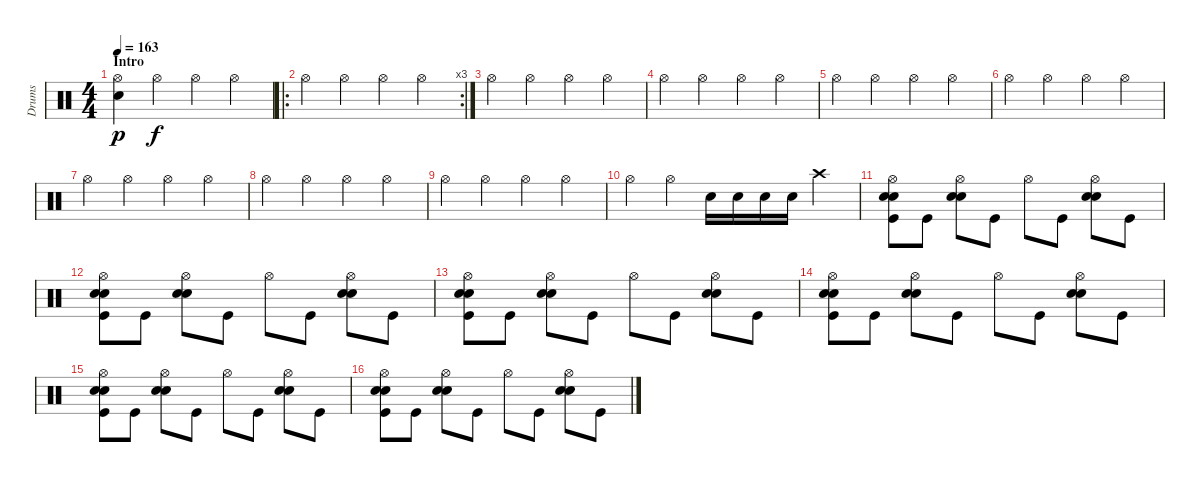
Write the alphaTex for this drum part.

\track ("Drums" "Drums") {instrument percussion}
\staff {score}
\articulation defaults
\ts (4 4)
\section ("" "Intro")
\tempo 163
\clef neutral
\ks c
("Hi-Hat (open)" "Snare (hit) 2").4{dy p} "Hi-Hat (open)".4{dy f} "Hi-Hat (open)".4 "Hi-Hat (open)".4 |
\ro
\rc 3 "Hi-Hat (open)".4 "Hi-Hat (open)".4 "Hi-Hat (open)".4 "Hi-Hat (open)".4
|
"Hi-Hat (open)".4 "Hi-Hat (open)".4 "Hi-Hat (open)".4 "Hi-Hat (open)".4 |
"Hi-Hat (open)".4 "Hi-Hat (open)".4 "Hi-Hat (open)".4 "Hi-Hat (open)".4 |
"Hi-Hat (open)".4 "Hi-Hat (open)".4 "Hi-Hat (open)".4 "Hi-Hat (open)".4 |
"Hi-Hat (open)".4 "Hi-Hat (open)".4 "Hi-Hat (open)".4 "Hi-Hat (open)".4 |
"Hi-Hat (open)".4 "Hi-Hat (open)".4 "Hi-Hat (open)".4 "Hi-Hat (open)".4 |
"Hi-Hat (open)".4 "Hi-Hat (open)".4 "Hi-Hat (open)".4 "Hi-Hat (open)".4 |
"Hi-Hat (open)".4 "Hi-Hat (open)".4 "Hi-Hat (open)".4 "Hi-Hat (open)".4 |
"Hi-Hat (open)".4 "Hi-Hat (open)".4 "Electric Snare (hit)".16 "Electric Snare (hit)".16 "Electric Snare (hit)".16 "Electric Snare (hit)".16 "Crash high (hit)".4 |
("Hi-Hat (open)" "Electric Snare (hit)" "Electric Snare (hit)" "Kick (hit)").8 "Kick (hit)".8 ("Hi-Hat (open)" "Electric Snare (hit)" "Electric Snare (hit)").8 "Kick (hit)".8 "Hi-Hat (open)".8 "Kick (hit)".8 ("Hi-Hat (open)" "Electric Snare (hit)" "Electric Snare (hit)").8 "Kick (hit)".8 |
("Hi-Hat (open)" "Electric Snare (hit)" "Electric Snare (hit)" "Kick (hit)").8 "Kick (hit)".8 ("Hi-Hat (open)" "Electric Snare (hit)" "Electric Snare (hit)").8 "Kick (hit)".8 "Hi-Hat (open)".8 "Kick (hit)".8 ("Hi-Hat (open)" "Electric Snare (hit)" "Electric Snare (hit)").8 "Kick (hit)".8 |
("Hi-Hat (open)" "Electric Snare (hit)" "Electric Snare (hit)" "Kick (hit)").8 "Kick (hit)".8 ("Hi-Hat (open)" "Electric Snare (hit)" "Electric Snare (hit)").8 "Kick (hit)".8 "Hi-Hat (open)".8 "Kick (hit)".8 ("Hi-Hat (open)" "Electric Snare (hit)" "Electric Snare (hit)").8 "Kick (hit)".8 |
("Hi-Hat (open)" "Electric Snare (hit)" "Electric Snare (hit)" "Kick (hit)").8 "Kick (hit)".8 ("Hi-Hat (open)" "Electric Snare (hit)" "Electric Snare (hit)").8 "Kick (hit)".8 "Hi-Hat (open)".8 "Kick (hit)".8 ("Hi-Hat (open)" "Electric Snare (hit)" "Electric Snare (hit)").8 "Kick (hit)".8 |
("Hi-Hat (open)" "Electric Snare (hit)" "Electric Snare (hit)" "Kick (hit)").8 "Kick (hit)".8 ("Hi-Hat (open)" "Electric Snare (hit)" "Electric Snare (hit)").8 "Kick (hit)".8 "Hi-Hat (open)".8 "Kick (hit)".8 ("Hi-Hat (open)" "Electric Snare (hit)" "Electric Snare (hit)").8 "Kick (hit)".8 |
("Hi-Hat (open)" "Electric Snare (hit)" "Electric Snare (hit)" "Kick (hit)").8 "Kick (hit)".8 ("Hi-Hat (open)" "Electric Snare (hit)" "Electric Snare (hit)").8 "Kick (hit)".8 "Hi-Hat (open)".8 "Kick (hit)".8 ("Hi-Hat (open)" "Electric Snare (hit)" "Electric Snare (hit)").8 "Kick (hit)".8
